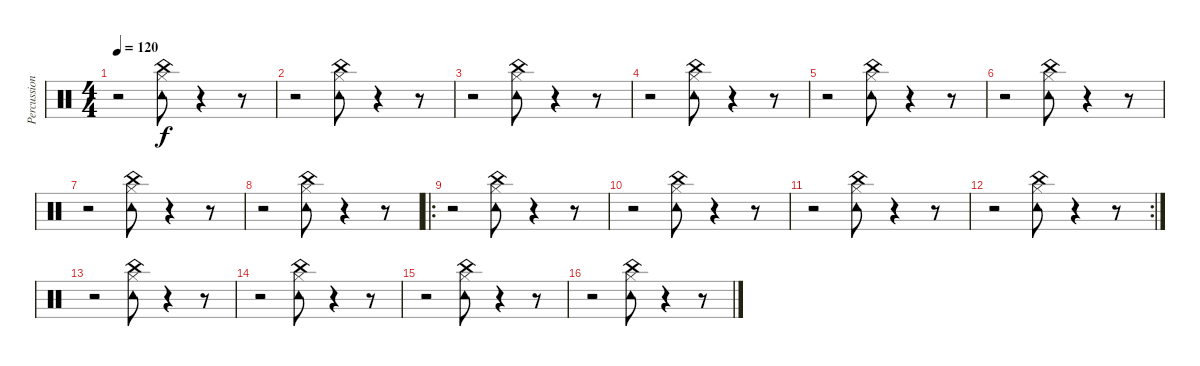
\track ("Percussion " "Percussion") {instrument percussion}
\staff {score}
\articulation defaults
\ts (4 4)
\tempo 120
\clef neutral
\ks c
r.2{dy f} ("Tambourine (hit)" "China (hit)" "Hi-Hat (closed)").8 r.4 r.8 |
r.2 ("Tambourine (hit)" "China (hit)" "Hi-Hat (closed)").8 r.4 r.8 |
r.2 ("Tambourine (hit)" "China (hit)" "Hi-Hat (closed)").8 r.4 r.8 |
r.2 ("Tambourine (hit)" "China (hit)" "Hi-Hat (closed)").8 r.4 r.8 |
r.2 ("Tambourine (hit)" "China (hit)" "Hi-Hat (closed)").8 r.4 r.8 |
r.2 ("Tambourine (hit)" "China (hit)" "Hi-Hat (closed)").8 r.4 r.8 |
r.2 ("Tambourine (hit)" "China (hit)" "Hi-Hat (closed)").8 r.4 r.8 |
r.2 ("Tambourine (hit)" "China (hit)" "Hi-Hat (closed)").8 r.4 r.8 |
\ro
r.2 ("Tambourine (hit)" "China (hit)" "Hi-Hat (closed)").8 r.4 r.8 |
r.2 ("Tambourine (hit)" "China (hit)" "Hi-Hat (closed)").8 r.4 r.8 |
r.2 ("Tambourine (hit)" "China (hit)" "Hi-Hat (closed)").8 r.4 r.8 |
\rc 2
r.2 ("Tambourine (hit)" "China (hit)" "Hi-Hat (closed)").8 r.4 r.8 |
r.2 ("Tambourine (hit)" "China (hit)" "Hi-Hat (closed)").8 r.4 r.8 |
r.2 ("Tambourine (hit)" "China (hit)" "Hi-Hat (closed)").8 r.4 r.8 |
r.2 ("Tambourine (hit)" "China (hit)" "Hi-Hat (closed)").8 r.4 r.8 |
r.2 ("Tambourine (hit)" "China (hit)" "Hi-Hat (closed)").8 r.4 r.8
